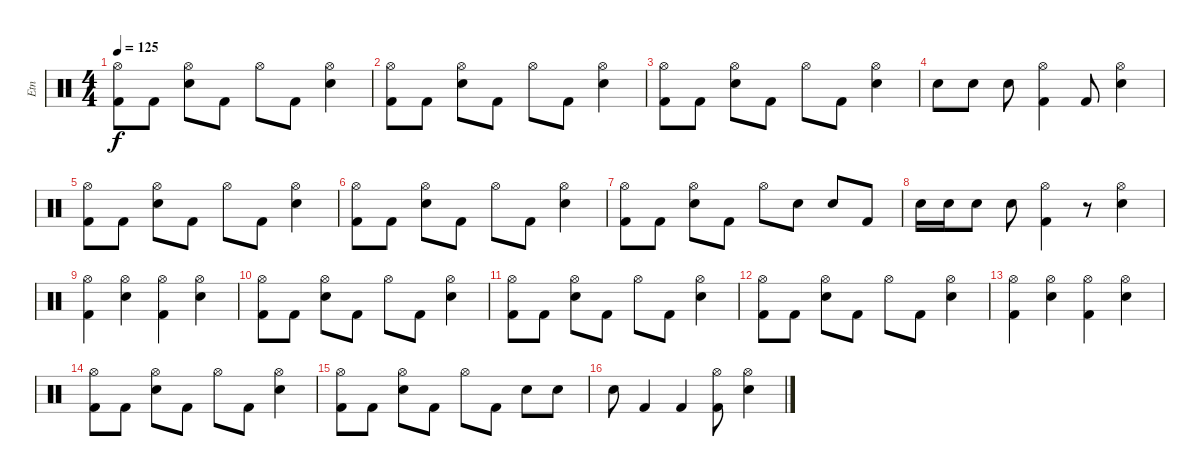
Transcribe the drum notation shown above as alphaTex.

\track ("Etn" "Etn") {instrument percussion}
\staff {score}
\articulation defaults
\ts (4 4)
\tempo 125
\clef neutral
\ks c
("Hi-Hat (open)" "Kick (hit) 2").8{dy f} "Kick (hit) 2".8 ("Hi-Hat (open)" "Snare (hit) 2").8 "Kick (hit) 2".8 "Hi-Hat (open)".8 "Kick (hit) 2".8 ("Hi-Hat (open)" "Snare (hit) 2").4 |
("Hi-Hat (open)" "Kick (hit) 2").8 "Kick (hit) 2".8 ("Hi-Hat (open)" "Snare (hit) 2").8 "Kick (hit) 2".8 "Hi-Hat (open)".8 "Kick (hit) 2".8 ("Hi-Hat (open)" "Snare (hit) 2").4 |
("Hi-Hat (open)" "Kick (hit) 2").8 "Kick (hit) 2".8 ("Hi-Hat (open)" "Snare (hit) 2").8 "Kick (hit) 2".8 "Hi-Hat (open)".8 "Kick (hit) 2".8 ("Hi-Hat (open)" "Snare (hit) 2").4 |
"Snare (hit) 2".8 "Snare (hit) 2".8 "Snare (hit) 2".8 ("Hi-Hat (open)" "Kick (hit) 2").4 "Kick (hit) 2".8 ("Hi-Hat (open)" "Snare (hit) 2").4 |
("Hi-Hat (open)" "Kick (hit) 2").8 "Kick (hit) 2".8 ("Hi-Hat (open)" "Snare (hit) 2").8 "Kick (hit) 2".8 "Hi-Hat (open)".8 "Kick (hit) 2".8 ("Hi-Hat (open)" "Snare (hit) 2").4 |
("Hi-Hat (open)" "Kick (hit) 2").8 "Kick (hit) 2".8 ("Hi-Hat (open)" "Snare (hit) 2").8 "Kick (hit) 2".8 "Hi-Hat (open)".8 "Kick (hit) 2".8 ("Hi-Hat (open)" "Snare (hit) 2").4 |
("Hi-Hat (open)" "Kick (hit) 2").8 "Kick (hit) 2".8 ("Hi-Hat (open)" "Snare (hit) 2").8 "Kick (hit) 2".8 "Hi-Hat (open)".8 "Snare (hit) 2".8 "Snare (hit) 2".8 "Kick (hit) 2".8 |
"Snare (hit) 2".16 "Snare (hit) 2".16 "Snare (hit) 2".8 "Snare (hit) 2".8 ("Hi-Hat (open)" "Kick (hit) 2").4 r.8 ("Hi-Hat (open)" "Snare (hit) 2").4 |
("Hi-Hat (open)" "Kick (hit) 2").4 ("Hi-Hat (open)" "Snare (hit) 2").4 ("Hi-Hat (open)" "Kick (hit) 2").4 ("Hi-Hat (open)" "Snare (hit) 2").4 |
("Hi-Hat (open)" "Kick (hit) 2").8 "Kick (hit) 2".8 ("Hi-Hat (open)" "Snare (hit) 2").8 "Kick (hit) 2".8 "Hi-Hat (open)".8 "Kick (hit) 2".8 ("Hi-Hat (open)" "Snare (hit) 2").4 |
("Hi-Hat (open)" "Kick (hit) 2").8 "Kick (hit) 2".8 ("Hi-Hat (open)" "Snare (hit) 2").8 "Kick (hit) 2".8 "Hi-Hat (open)".8 "Kick (hit) 2".8 ("Hi-Hat (open)" "Snare (hit) 2").4 |
("Hi-Hat (open)" "Kick (hit) 2").8 "Kick (hit) 2".8 ("Hi-Hat (open)" "Snare (hit) 2").8 "Kick (hit) 2".8 "Hi-Hat (open)".8 "Kick (hit) 2".8 ("Hi-Hat (open)" "Snare (hit) 2").4 |
("Hi-Hat (open)" "Kick (hit) 2").4 ("Hi-Hat (open)" "Snare (hit) 2").4 ("Hi-Hat (open)" "Kick (hit) 2").4 ("Hi-Hat (open)" "Snare (hit) 2").4 |
("Hi-Hat (open)" "Kick (hit) 2").8 "Kick (hit) 2".8 ("Hi-Hat (open)" "Snare (hit) 2").8 "Kick (hit) 2".8 "Hi-Hat (open)".8 "Kick (hit) 2".8 ("Hi-Hat (open)" "Snare (hit) 2").4 |
("Hi-Hat (open)" "Kick (hit) 2").8 "Kick (hit) 2".8 ("Hi-Hat (open)" "Snare (hit) 2").8 "Kick (hit) 2".8 "Hi-Hat (open)".8 "Kick (hit) 2".8 "Snare (hit) 2".8 "Snare (hit) 2".8 |
"Snare (hit) 2".8 "Kick (hit) 2".4 "Kick (hit) 2".4 ("Hi-Hat (open)" "Kick (hit) 2").8 ("Hi-Hat (open)" "Snare (hit) 2").4
